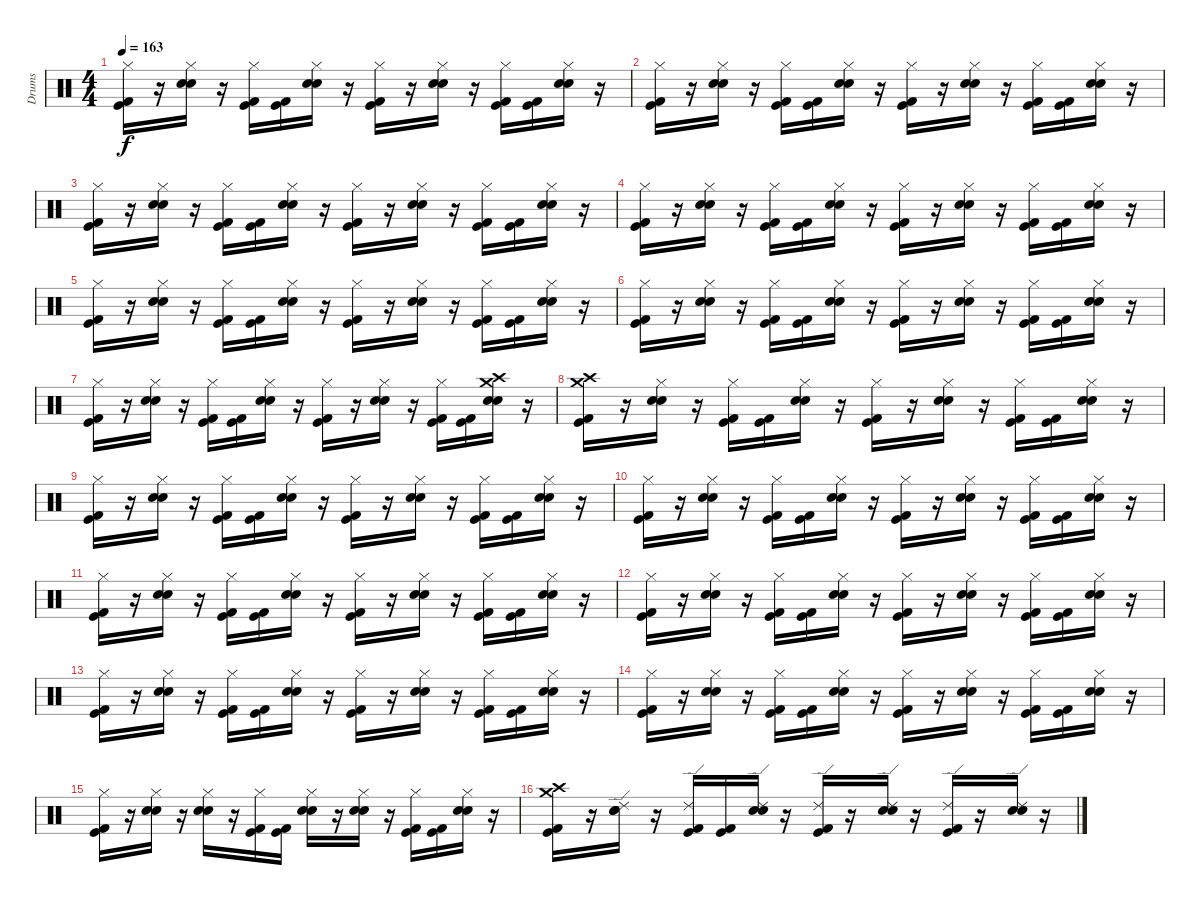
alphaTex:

\track ("Drums" "Drums") {instrument percussion}
\staff {score}
\articulation defaults
\ts (4 4)
\tempo 163
\clef neutral
\ks c
("Hi-Hat (closed)" "Kick (hit) 2" "Kick (hit)").16{dy f} r.16 ("Hi-Hat (closed)" "Electric Snare (hit)" "Snare (hit) 2").16 r.16 ("Kick (hit)" "Kick (hit) 2" "Hi-Hat (closed)").16 ("Kick (hit)" "Kick (hit) 2").16 ("Electric Snare (hit)" "Snare (hit) 2" "Hi-Hat (closed)").16 r.16 ("Kick (hit)" "Kick (hit) 2" "Hi-Hat (closed)").16 r.16 ("Electric Snare (hit)" "Snare (hit) 2" "Hi-Hat (closed)").16 r.16 ("Kick (hit) 2" "Kick (hit)" "Hi-Hat (closed)").16 ("Kick (hit) 2" "Kick (hit)").16 ("Electric Snare (hit)" "Snare (hit) 2" "Hi-Hat (closed)").16 r.16 |
("Hi-Hat (closed)" "Kick (hit) 2" "Kick (hit)").16 r.16 ("Hi-Hat (closed)" "Electric Snare (hit)" "Snare (hit) 2").16 r.16 ("Kick (hit)" "Kick (hit) 2" "Hi-Hat (closed)").16 ("Kick (hit)" "Kick (hit) 2").16 ("Electric Snare (hit)" "Snare (hit) 2" "Hi-Hat (closed)").16 r.16 ("Kick (hit)" "Kick (hit) 2" "Hi-Hat (closed)").16 r.16 ("Electric Snare (hit)" "Snare (hit) 2" "Hi-Hat (closed)").16 r.16 ("Kick (hit) 2" "Kick (hit)" "Hi-Hat (closed)").16 ("Kick (hit) 2" "Kick (hit)").16 ("Electric Snare (hit)" "Snare (hit) 2" "Hi-Hat (closed)").16 r.16 |
("Hi-Hat (closed)" "Kick (hit) 2" "Kick (hit)").16 r.16 ("Hi-Hat (closed)" "Electric Snare (hit)" "Snare (hit) 2").16 r.16 ("Kick (hit)" "Kick (hit) 2" "Hi-Hat (closed)").16 ("Kick (hit)" "Kick (hit) 2").16 ("Electric Snare (hit)" "Snare (hit) 2" "Hi-Hat (closed)").16 r.16 ("Kick (hit)" "Kick (hit) 2" "Hi-Hat (closed)").16 r.16 ("Electric Snare (hit)" "Snare (hit) 2" "Hi-Hat (closed)").16 r.16 ("Kick (hit) 2" "Kick (hit)" "Hi-Hat (closed)").16 ("Kick (hit) 2" "Kick (hit)").16 ("Electric Snare (hit)" "Snare (hit) 2" "Hi-Hat (closed)").16 r.16 |
("Hi-Hat (closed)" "Kick (hit) 2" "Kick (hit)").16 r.16 ("Hi-Hat (closed)" "Electric Snare (hit)" "Snare (hit) 2").16 r.16 ("Kick (hit)" "Kick (hit) 2" "Hi-Hat (closed)").16 ("Kick (hit)" "Kick (hit) 2").16 ("Electric Snare (hit)" "Snare (hit) 2" "Hi-Hat (closed)").16 r.16 ("Kick (hit)" "Kick (hit) 2" "Hi-Hat (closed)").16 r.16 ("Electric Snare (hit)" "Snare (hit) 2" "Hi-Hat (closed)").16 r.16 ("Kick (hit) 2" "Kick (hit)" "Hi-Hat (closed)").16 ("Kick (hit) 2" "Kick (hit)").16 ("Electric Snare (hit)" "Snare (hit) 2" "Hi-Hat (closed)").16 r.16 |
("Hi-Hat (closed)" "Kick (hit) 2" "Kick (hit)").16 r.16 ("Hi-Hat (closed)" "Electric Snare (hit)" "Snare (hit) 2").16 r.16 ("Kick (hit)" "Kick (hit) 2" "Hi-Hat (closed)").16 ("Kick (hit)" "Kick (hit) 2").16 ("Electric Snare (hit)" "Snare (hit) 2" "Hi-Hat (closed)").16 r.16 ("Kick (hit)" "Kick (hit) 2" "Hi-Hat (closed)").16 r.16 ("Electric Snare (hit)" "Snare (hit) 2" "Hi-Hat (closed)").16 r.16 ("Kick (hit) 2" "Kick (hit)" "Hi-Hat (closed)").16 ("Kick (hit) 2" "Kick (hit)").16 ("Electric Snare (hit)" "Snare (hit) 2" "Hi-Hat (closed)").16 r.16 |
("Hi-Hat (closed)" "Kick (hit) 2" "Kick (hit)").16 r.16 ("Hi-Hat (closed)" "Electric Snare (hit)" "Snare (hit) 2").16 r.16 ("Kick (hit)" "Kick (hit) 2" "Hi-Hat (closed)").16 ("Kick (hit)" "Kick (hit) 2").16 ("Electric Snare (hit)" "Snare (hit) 2" "Hi-Hat (closed)").16 r.16 ("Kick (hit)" "Kick (hit) 2" "Hi-Hat (closed)").16 r.16 ("Electric Snare (hit)" "Snare (hit) 2" "Hi-Hat (closed)").16 r.16 ("Kick (hit) 2" "Kick (hit)" "Hi-Hat (closed)").16 ("Kick (hit) 2" "Kick (hit)").16 ("Electric Snare (hit)" "Snare (hit) 2" "Hi-Hat (closed)").16 r.16 |
("Hi-Hat (closed)" "Kick (hit) 2" "Kick (hit)").16 r.16 ("Hi-Hat (closed)" "Electric Snare (hit)" "Snare (hit) 2").16 r.16 ("Kick (hit)" "Kick (hit) 2" "Hi-Hat (closed)").16 ("Kick (hit)" "Kick (hit) 2").16 ("Electric Snare (hit)" "Snare (hit) 2" "Hi-Hat (closed)").16 r.16 ("Kick (hit)" "Kick (hit) 2" "Hi-Hat (closed)").16 r.16 ("Electric Snare (hit)" "Snare (hit) 2" "Hi-Hat (closed)").16 r.16 ("Kick (hit) 2" "Kick (hit)" "Hi-Hat (closed)").16 ("Kick (hit) 2" "Kick (hit)").16 ("Crash medium (hit)" "Crash high (hit)" "Electric Snare (hit)" "Snare (hit) 2").16 r.16 |
("Crash medium (hit)" "Crash high (hit)" "Kick (hit) 2" "Kick (hit)").16 r.16 ("Hi-Hat (closed)" "Electric Snare (hit)" "Snare (hit) 2").16 r.16 ("Kick (hit)" "Kick (hit) 2" "Hi-Hat (closed)").16 ("Kick (hit)" "Kick (hit) 2").16 ("Electric Snare (hit)" "Snare (hit) 2" "Hi-Hat (closed)").16 r.16 ("Kick (hit)" "Kick (hit) 2" "Hi-Hat (closed)").16 r.16 ("Electric Snare (hit)" "Snare (hit) 2" "Hi-Hat (closed)").16 r.16 ("Kick (hit) 2" "Kick (hit)" "Hi-Hat (closed)").16 ("Kick (hit) 2" "Kick (hit)").16 ("Electric Snare (hit)" "Snare (hit) 2" "Hi-Hat (closed)").16 r.16 |
("Hi-Hat (closed)" "Kick (hit) 2" "Kick (hit)").16 r.16 ("Hi-Hat (closed)" "Electric Snare (hit)" "Snare (hit) 2").16 r.16 ("Kick (hit)" "Kick (hit) 2" "Hi-Hat (closed)").16 ("Kick (hit)" "Kick (hit) 2").16 ("Electric Snare (hit)" "Snare (hit) 2" "Hi-Hat (closed)").16 r.16 ("Kick (hit)" "Kick (hit) 2" "Hi-Hat (closed)").16 r.16 ("Electric Snare (hit)" "Snare (hit) 2" "Hi-Hat (closed)").16 r.16 ("Kick (hit) 2" "Kick (hit)" "Hi-Hat (closed)").16 ("Kick (hit) 2" "Kick (hit)").16 ("Electric Snare (hit)" "Snare (hit) 2" "Hi-Hat (closed)").16 r.16 |
("Hi-Hat (closed)" "Kick (hit) 2" "Kick (hit)").16 r.16 ("Hi-Hat (closed)" "Electric Snare (hit)" "Snare (hit) 2").16 r.16 ("Kick (hit)" "Kick (hit) 2" "Hi-Hat (closed)").16 ("Kick (hit)" "Kick (hit) 2").16 ("Electric Snare (hit)" "Snare (hit) 2" "Hi-Hat (closed)").16 r.16 ("Kick (hit)" "Kick (hit) 2" "Hi-Hat (closed)").16 r.16 ("Electric Snare (hit)" "Snare (hit) 2" "Hi-Hat (closed)").16 r.16 ("Kick (hit) 2" "Kick (hit)" "Hi-Hat (closed)").16 ("Kick (hit) 2" "Kick (hit)").16 ("Electric Snare (hit)" "Snare (hit) 2" "Hi-Hat (closed)").16 r.16 |
("Hi-Hat (closed)" "Kick (hit) 2" "Kick (hit)").16 r.16 ("Hi-Hat (closed)" "Electric Snare (hit)" "Snare (hit) 2").16 r.16 ("Kick (hit)" "Kick (hit) 2" "Hi-Hat (closed)").16 ("Kick (hit)" "Kick (hit) 2").16 ("Electric Snare (hit)" "Snare (hit) 2" "Hi-Hat (closed)").16 r.16 ("Kick (hit)" "Kick (hit) 2" "Hi-Hat (closed)").16 r.16 ("Electric Snare (hit)" "Snare (hit) 2" "Hi-Hat (closed)").16 r.16 ("Kick (hit) 2" "Kick (hit)" "Hi-Hat (closed)").16 ("Kick (hit) 2" "Kick (hit)").16 ("Electric Snare (hit)" "Snare (hit) 2" "Hi-Hat (closed)").16 r.16 |
("Hi-Hat (closed)" "Kick (hit) 2" "Kick (hit)").16 r.16 ("Hi-Hat (closed)" "Electric Snare (hit)" "Snare (hit) 2").16 r.16 ("Kick (hit)" "Kick (hit) 2" "Hi-Hat (closed)").16 ("Kick (hit)" "Kick (hit) 2").16 ("Electric Snare (hit)" "Snare (hit) 2" "Hi-Hat (closed)").16 r.16 ("Kick (hit)" "Kick (hit) 2" "Hi-Hat (closed)").16 r.16 ("Electric Snare (hit)" "Snare (hit) 2" "Hi-Hat (closed)").16 r.16 ("Kick (hit) 2" "Kick (hit)" "Hi-Hat (closed)").16 ("Kick (hit) 2" "Kick (hit)").16 ("Electric Snare (hit)" "Snare (hit) 2" "Hi-Hat (closed)").16 r.16 |
("Hi-Hat (closed)" "Kick (hit) 2" "Kick (hit)").16 r.16 ("Hi-Hat (closed)" "Electric Snare (hit)" "Snare (hit) 2").16 r.16 ("Kick (hit)" "Kick (hit) 2" "Hi-Hat (closed)").16 ("Kick (hit)" "Kick (hit) 2").16 ("Electric Snare (hit)" "Snare (hit) 2" "Hi-Hat (closed)").16 r.16 ("Kick (hit)" "Kick (hit) 2" "Hi-Hat (closed)").16 r.16 ("Electric Snare (hit)" "Snare (hit) 2" "Hi-Hat (closed)").16 r.16 ("Kick (hit) 2" "Kick (hit)" "Hi-Hat (closed)").16 ("Kick (hit) 2" "Kick (hit)").16 ("Electric Snare (hit)" "Snare (hit) 2" "Hi-Hat (closed)").16 r.16 |
("Hi-Hat (closed)" "Kick (hit) 2" "Kick (hit)").16 r.16 ("Hi-Hat (closed)" "Electric Snare (hit)" "Snare (hit) 2").16 r.16 ("Kick (hit)" "Kick (hit) 2" "Hi-Hat (closed)").16 ("Kick (hit)" "Kick (hit) 2").16 ("Electric Snare (hit)" "Snare (hit) 2" "Hi-Hat (closed)").16 r.16 ("Kick (hit)" "Kick (hit) 2" "Hi-Hat (closed)").16 r.16 ("Electric Snare (hit)" "Snare (hit) 2" "Hi-Hat (closed)").16 r.16 ("Kick (hit) 2" "Kick (hit)" "Hi-Hat (closed)").16 ("Kick (hit) 2" "Kick (hit)").16 ("Electric Snare (hit)" "Snare (hit) 2" "Hi-Hat (closed)").16 r.16 |
("Hi-Hat (closed)" "Kick (hit) 2" "Kick (hit)").16 r.16 ("Hi-Hat (closed)" "Electric Snare (hit)" "Snare (hit) 2").16 r.16 ("Electric Snare (hit)" "Snare (hit) 2" "Hi-Hat (closed)").16 r.16 ("Kick (hit) 2" "Kick (hit)" "Hi-Hat (closed)").16 ("Kick (hit) 2" "Kick (hit)").16 ("Electric Snare (hit)" "Snare (hit) 2" "Hi-Hat (closed)").16 r.16 ("Electric Snare (hit)" "Snare (hit) 2" "Hi-Hat (closed)").16 r.16 ("Kick (hit) 2" "Kick (hit)" "Hi-Hat (closed)").16 ("Kick (hit) 2" "Kick (hit)").16 ("Electric Snare (hit)" "Snare (hit) 2" "Hi-Hat (closed)").16 r.16 |
("Crash high (hit)" "Crash medium (hit)" "Kick (hit) 2" "Kick (hit)").16 r.16 ("Ride (edge) 2" "Snare (hit) 2" "Electric Snare (hit)").16 r.16 ("Ride (edge) 2" "Kick (hit) 2" "Kick (hit)").16 ("Kick (hit) 2" "Kick (hit)").16 ("Ride (edge) 2" "Snare (hit) 2" "Electric Snare (hit)").16 r.16 ("Ride (edge) 2" "Kick (hit) 2" "Kick (hit)").16 r.16 ("Ride (edge) 2" "Electric Snare (hit)" "Snare (hit) 2").16 r.16 ("Ride (edge) 2" "Kick (hit) 2" "Kick (hit)").16 r.16 ("Ride (edge) 2" "Electric Snare (hit)" "Snare (hit) 2").16 r.16
